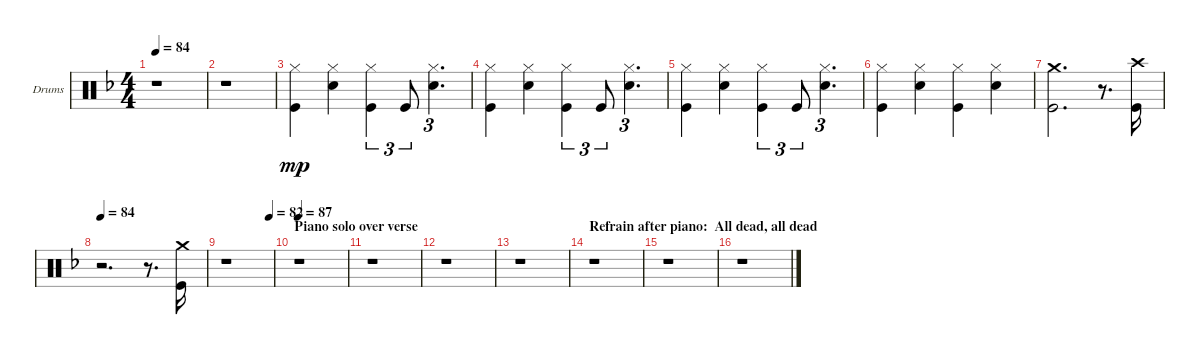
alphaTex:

\bracketExtendMode groupsimilarinstruments
\firstSystemTrackNameOrientation horizontal
\otherSystemsTrackNameOrientation horizontal
\track ("Drumkit" "Drums") {instrument percussion}
\staff {score}
\articulation defaults
\ts (4 4)
\tempo 84
\clef neutral
\ks dminor
r.1{dy mp} |
r.1 |
("Hi-Hat (closed)" "Kick (hit)").4 ("Hi-Hat (closed)" "Snare (hit) 2").4 ("Hi-Hat (closed)" "Kick (hit)").4{tu (3 2)} "Kick (hit)".8{tu (3 2)} ("Snare (hit) 2" "Hi-Hat (closed)").4{d tu (3 2)} |
("Kick (hit)" "Hi-Hat (closed)").4 ("Snare (hit) 2" "Hi-Hat (closed)").4 ("Hi-Hat (closed)" "Kick (hit)").4{tu (3 2)} "Kick (hit)".8{tu (3 2)} ("Snare (hit) 2" "Hi-Hat (closed)").4{d tu (3 2)} |
("Kick (hit)" "Hi-Hat (closed)").4 ("Snare (hit) 2" "Hi-Hat (closed)").4 ("Hi-Hat (closed)" "Kick (hit)").4{tu (3 2)} "Kick (hit)".8{tu (3 2)} ("Snare (hit) 2" "Hi-Hat (closed)").4{d tu (3 2)} |
("Hi-Hat (closed)" "Kick (hit)").4 ("Snare (hit) 2" "Hi-Hat (closed)").4 ("Hi-Hat (closed)" "Kick (hit)").4 ("Hi-Hat (closed)" "Snare (hit) 2").4 |
("Kick (hit)" "Crash medium (hit)").2{d} r.8{d} ("Crash high (hit)" "Kick (hit)").16 |
\tempo 84
r.2{d} r.8{d} ("Crash medium (hit)" "Kick (hit)").16 |
\tempo (82 0.925)
r.1 |
\section ("" "Piano solo over verse")
\tempo 87
r.1 |
r.1 |
r.1 |
r.1 |
\section ("" "Refrain after piano:  All dead, all dead")
r.1 |
r.1 |
r.1
